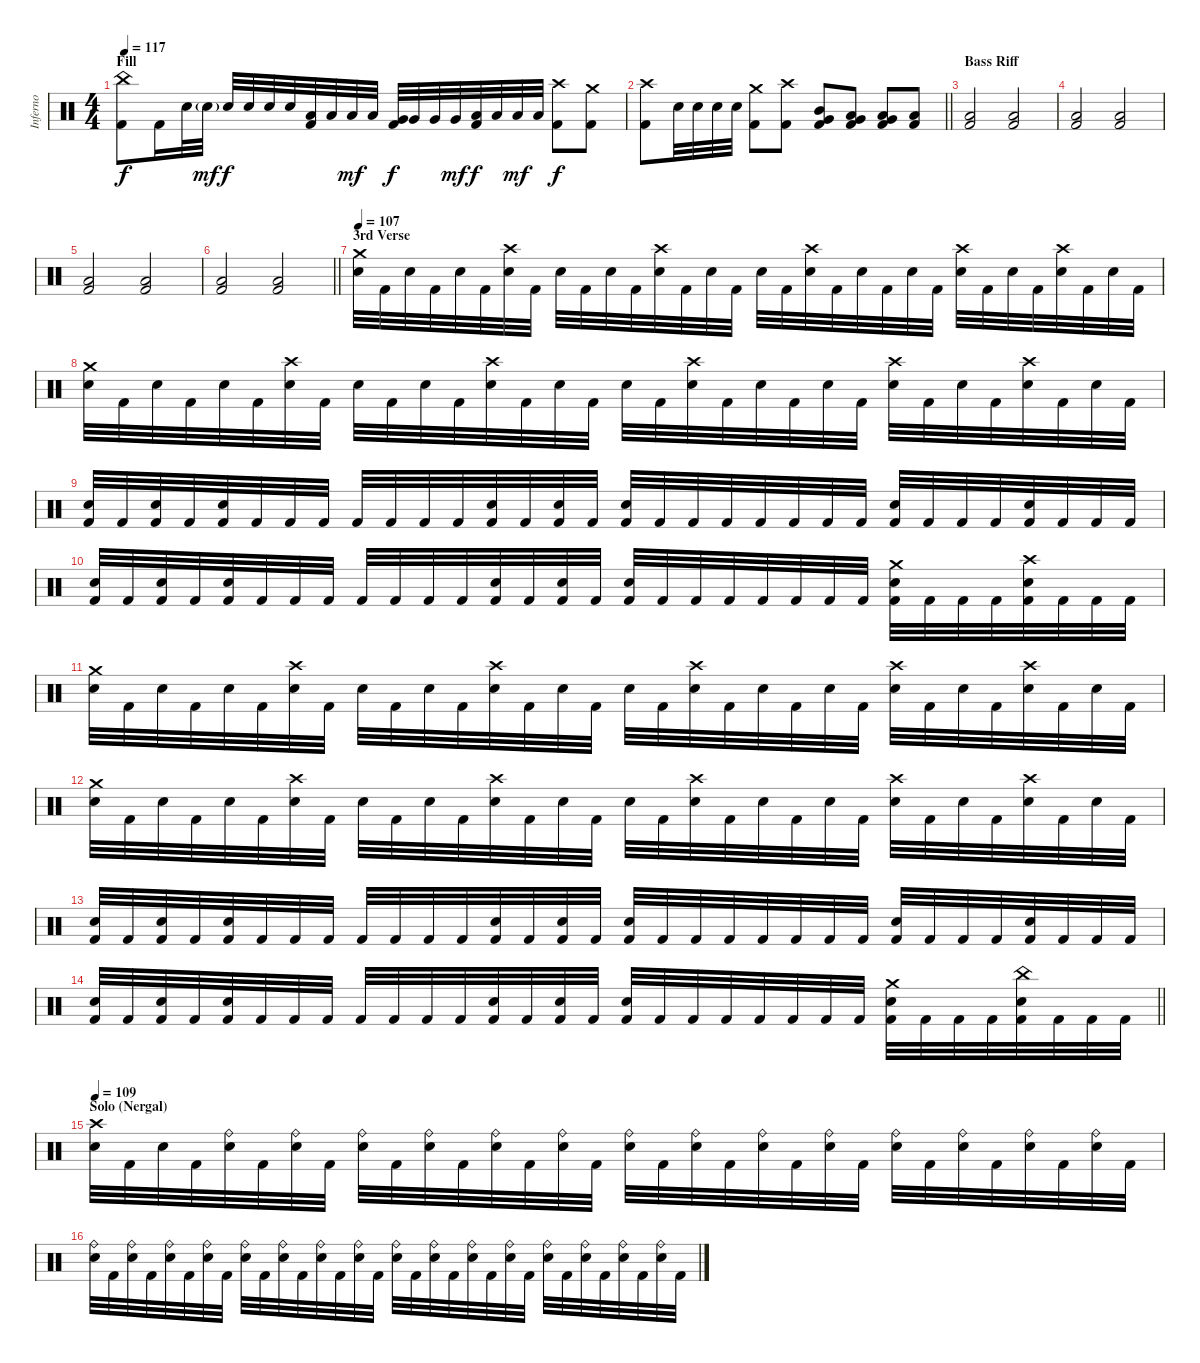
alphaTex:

\track ("Inferno" "Inferno") {instrument percussion}
\staff {score}
\articulation defaults
\ts (4 4)
\section ("" "Fill")
\tempo 117
\clef neutral
\ks c
("China (hit)" "Kick (hit) 2").8{dy f} "Kick (hit) 2".16 "Snare (hit) 2".32 "Snare (hit) 2"{g}.32{dy mf} "Snare (hit) 2".32{dy f} "Snare (hit) 2".32 "Snare (hit) 2".32 "Snare (hit) 2".32 ("Low Tom (hit)" "Kick (hit) 2").32 "Low Tom (hit)".32 "Low Tom (hit)".32{dy mf} "Low Tom (hit)".32 ("Very Low Tom (hit)" "Kick (hit) 2").32{dy f} "Very Low Tom (hit)".32 "Very Low Tom (hit)".32 "Very Low Tom (hit)".32{dy mf} ("Low Floor Tom (hit)" "Kick (hit) 2").32{dy f} "Low Floor Tom (hit)".32 "Low Floor Tom (hit)".32{dy mf} "Low Floor Tom (hit)".32 ("Crash high (hit)" "Kick (hit) 2").8{dy f} ("Crash medium (hit)" "Kick (hit) 2").8 |
\barLineRight lightlight
("Crash high (hit)" "Kick (hit) 2").8 "Snare (hit) 2".32 "Snare (hit) 2".32 "Snare (hit) 2".32 "Snare (hit) 2".32 ("Crash medium (hit)" "Kick (hit) 2").8 ("Crash high (hit)" "Kick (hit) 2").8 ("Mid Tom (hit)" "Very Low Tom (hit)" "Kick (hit) 2").8 ("Low Tom (hit)" "Very Low Tom (hit)" "Kick (hit) 2").8 ("Very Low Tom (hit)" "Low Floor Tom (hit)" "Kick (hit) 2").8 ("Low Floor Tom (hit)" "Kick (hit) 2").8 |
\section ("" "Bass Riff")
("Low Floor Tom (hit)" "Kick (hit) 2").2 ("Low Floor Tom (hit)" "Kick (hit) 2").2 |
("Low Floor Tom (hit)" "Kick (hit) 2").2 ("Low Floor Tom (hit)" "Kick (hit) 2").2 |
("Low Floor Tom (hit)" "Kick (hit) 2").2 ("Low Floor Tom (hit)" "Kick (hit) 2").2 |
\barLineRight lightlight
("Low Floor Tom (hit)" "Kick (hit) 2").2 ("Low Floor Tom (hit)" "Kick (hit) 2").2 |
\section ("" "3rd Verse")
\tempo 107
("Crash medium (hit)" "Snare (hit) 2").32 "Kick (hit) 2".32 "Snare (hit) 2".32 "Kick (hit) 2".32 "Snare (hit) 2".32 "Kick (hit) 2".32 ("Crash high (hit)" "Snare (hit) 2").32 "Kick (hit) 2".32 "Snare (hit) 2".32 "Kick (hit) 2".32 "Snare (hit) 2".32 "Kick (hit) 2".32 ("Crash high (hit)" "Snare (hit) 2").32 "Kick (hit) 2".32 "Snare (hit) 2".32 "Kick (hit) 2".32 "Snare (hit) 2".32 "Kick (hit) 2".32 ("Crash high (hit)" "Snare (hit) 2").32 "Kick (hit) 2".32 "Snare (hit) 2".32 "Kick (hit) 2".32 "Snare (hit) 2".32 "Kick (hit) 2".32 ("Crash high (hit)" "Snare (hit) 2").32 "Kick (hit) 2".32 "Snare (hit) 2".32 "Kick (hit) 2".32 ("Crash high (hit)" "Snare (hit) 2").32 "Kick (hit) 2".32 "Snare (hit) 2".32 "Kick (hit) 2".32 |
("Crash medium (hit)" "Snare (hit) 2").32 "Kick (hit) 2".32 "Snare (hit) 2".32 "Kick (hit) 2".32 "Snare (hit) 2".32 "Kick (hit) 2".32 ("Crash high (hit)" "Snare (hit) 2").32 "Kick (hit) 2".32 "Snare (hit) 2".32 "Kick (hit) 2".32 "Snare (hit) 2".32 "Kick (hit) 2".32 ("Crash high (hit)" "Snare (hit) 2").32 "Kick (hit) 2".32 "Snare (hit) 2".32 "Kick (hit) 2".32 "Snare (hit) 2".32 "Kick (hit) 2".32 ("Crash high (hit)" "Snare (hit) 2").32 "Kick (hit) 2".32 "Snare (hit) 2".32 "Kick (hit) 2".32 "Snare (hit) 2".32 "Kick (hit) 2".32 ("Crash high (hit)" "Snare (hit) 2").32 "Kick (hit) 2".32 "Snare (hit) 2".32 "Kick (hit) 2".32 ("Crash high (hit)" "Snare (hit) 2").32 "Kick (hit) 2".32 "Snare (hit) 2".32 "Kick (hit) 2".32 |
("Snare (hit) 2" "Kick (hit) 2").32 "Kick (hit) 2".32 ("Snare (hit) 2" "Kick (hit) 2").32 "Kick (hit) 2".32 ("Snare (hit) 2" "Kick (hit) 2").32 "Kick (hit) 2".32 "Kick (hit) 2".32 "Kick (hit) 2".32 "Kick (hit) 2".32 "Kick (hit) 2".32 "Kick (hit) 2".32 "Kick (hit) 2".32 ("Snare (hit) 2" "Kick (hit) 2").32 "Kick (hit) 2".32 ("Snare (hit) 2" "Kick (hit) 2").32 "Kick (hit) 2".32 ("Snare (hit) 2" "Kick (hit) 2").32 "Kick (hit) 2".32 "Kick (hit) 2".32 "Kick (hit) 2".32 "Kick (hit) 2".32 "Kick (hit) 2".32 "Kick (hit) 2".32 "Kick (hit) 2".32 ("Snare (hit) 2" "Kick (hit) 2").32 "Kick (hit) 2".32 "Kick (hit) 2".32 "Kick (hit) 2".32 ("Snare (hit) 2" "Kick (hit) 2").32 "Kick (hit) 2".32 "Kick (hit) 2".32 "Kick (hit) 2".32 |
("Snare (hit) 2" "Kick (hit) 2").32 "Kick (hit) 2".32 ("Snare (hit) 2" "Kick (hit) 2").32 "Kick (hit) 2".32 ("Snare (hit) 2" "Kick (hit) 2").32 "Kick (hit) 2".32 "Kick (hit) 2".32 "Kick (hit) 2".32 "Kick (hit) 2".32 "Kick (hit) 2".32 "Kick (hit) 2".32 "Kick (hit) 2".32 ("Snare (hit) 2" "Kick (hit) 2").32 "Kick (hit) 2".32 ("Snare (hit) 2" "Kick (hit) 2").32 "Kick (hit) 2".32 ("Snare (hit) 2" "Kick (hit) 2").32 "Kick (hit) 2".32 "Kick (hit) 2".32 "Kick (hit) 2".32 "Kick (hit) 2".32 "Kick (hit) 2".32 "Kick (hit) 2".32 "Kick (hit) 2".32 ("Crash medium (hit)" "Snare (hit) 2" "Kick (hit) 2").32 "Kick (hit) 2".32 "Kick (hit) 2".32 "Kick (hit) 2".32 ("Crash high (hit)" "Snare (hit) 2" "Kick (hit) 2").32 "Kick (hit) 2".32 "Kick (hit) 2".32 "Kick (hit) 2".32 |
("Crash medium (hit)" "Snare (hit) 2").32 "Kick (hit) 2".32 "Snare (hit) 2".32 "Kick (hit) 2".32 "Snare (hit) 2".32 "Kick (hit) 2".32 ("Crash high (hit)" "Snare (hit) 2").32 "Kick (hit) 2".32 "Snare (hit) 2".32 "Kick (hit) 2".32 "Snare (hit) 2".32 "Kick (hit) 2".32 ("Crash high (hit)" "Snare (hit) 2").32 "Kick (hit) 2".32 "Snare (hit) 2".32 "Kick (hit) 2".32 "Snare (hit) 2".32 "Kick (hit) 2".32 ("Crash high (hit)" "Snare (hit) 2").32 "Kick (hit) 2".32 "Snare (hit) 2".32 "Kick (hit) 2".32 "Snare (hit) 2".32 "Kick (hit) 2".32 ("Crash high (hit)" "Snare (hit) 2").32 "Kick (hit) 2".32 "Snare (hit) 2".32 "Kick (hit) 2".32 ("Crash high (hit)" "Snare (hit) 2").32 "Kick (hit) 2".32 "Snare (hit) 2".32 "Kick (hit) 2".32 |
("Crash medium (hit)" "Snare (hit) 2").32 "Kick (hit) 2".32 "Snare (hit) 2".32 "Kick (hit) 2".32 "Snare (hit) 2".32 "Kick (hit) 2".32 ("Crash high (hit)" "Snare (hit) 2").32 "Kick (hit) 2".32 "Snare (hit) 2".32 "Kick (hit) 2".32 "Snare (hit) 2".32 "Kick (hit) 2".32 ("Crash high (hit)" "Snare (hit) 2").32 "Kick (hit) 2".32 "Snare (hit) 2".32 "Kick (hit) 2".32 "Snare (hit) 2".32 "Kick (hit) 2".32 ("Crash high (hit)" "Snare (hit) 2").32 "Kick (hit) 2".32 "Snare (hit) 2".32 "Kick (hit) 2".32 "Snare (hit) 2".32 "Kick (hit) 2".32 ("Crash high (hit)" "Snare (hit) 2").32 "Kick (hit) 2".32 "Snare (hit) 2".32 "Kick (hit) 2".32 ("Crash high (hit)" "Snare (hit) 2").32 "Kick (hit) 2".32 "Snare (hit) 2".32 "Kick (hit) 2".32 |
("Snare (hit) 2" "Kick (hit) 2").32 "Kick (hit) 2".32 ("Snare (hit) 2" "Kick (hit) 2").32 "Kick (hit) 2".32 ("Snare (hit) 2" "Kick (hit) 2").32 "Kick (hit) 2".32 "Kick (hit) 2".32 "Kick (hit) 2".32 "Kick (hit) 2".32 "Kick (hit) 2".32 "Kick (hit) 2".32 "Kick (hit) 2".32 ("Snare (hit) 2" "Kick (hit) 2").32 "Kick (hit) 2".32 ("Snare (hit) 2" "Kick (hit) 2").32 "Kick (hit) 2".32 ("Snare (hit) 2" "Kick (hit) 2").32 "Kick (hit) 2".32 "Kick (hit) 2".32 "Kick (hit) 2".32 "Kick (hit) 2".32 "Kick (hit) 2".32 "Kick (hit) 2".32 "Kick (hit) 2".32 ("Snare (hit) 2" "Kick (hit) 2").32 "Kick (hit) 2".32 "Kick (hit) 2".32 "Kick (hit) 2".32 ("Snare (hit) 2" "Kick (hit) 2").32 "Kick (hit) 2".32 "Kick (hit) 2".32 "Kick (hit) 2".32 |
\barLineRight lightlight
("Snare (hit) 2" "Kick (hit) 2").32 "Kick (hit) 2".32 ("Snare (hit) 2" "Kick (hit) 2").32 "Kick (hit) 2".32 ("Snare (hit) 2" "Kick (hit) 2").32 "Kick (hit) 2".32 "Kick (hit) 2".32 "Kick (hit) 2".32 "Kick (hit) 2".32 "Kick (hit) 2".32 "Kick (hit) 2".32 "Kick (hit) 2".32 ("Snare (hit) 2" "Kick (hit) 2").32 "Kick (hit) 2".32 ("Snare (hit) 2" "Kick (hit) 2").32 "Kick (hit) 2".32 ("Snare (hit) 2" "Kick (hit) 2").32 "Kick (hit) 2".32 "Kick (hit) 2".32 "Kick (hit) 2".32 "Kick (hit) 2".32 "Kick (hit) 2".32 "Kick (hit) 2".32 "Kick (hit) 2".32 ("Crash medium (hit)" "Snare (hit) 2" "Kick (hit) 2").32 "Kick (hit) 2".32 "Kick (hit) 2".32 "Kick (hit) 2".32 ("China (hit)" "Snare (hit) 2" "Kick (hit) 2").32 "Kick (hit) 2".32 "Kick (hit) 2".32 "Kick (hit) 2".32 |
\section ("" "Solo (Nergal)")
\tempo 109
("Crash high (hit)" "Snare (hit) 2").32 "Kick (hit) 2".32 "Snare (hit) 2".32 "Kick (hit) 2".32 ("Ride (bell)" "Snare (hit) 2").32 "Kick (hit) 2".32 ("Ride (bell)" "Snare (hit) 2").32 "Kick (hit) 2".32 ("Ride (bell)" "Snare (hit) 2").32 "Kick (hit) 2".32 ("Ride (bell)" "Snare (hit) 2").32 "Kick (hit) 2".32 ("Ride (bell)" "Snare (hit) 2").32 "Kick (hit) 2".32 ("Ride (bell)" "Snare (hit) 2").32 "Kick (hit) 2".32 ("Ride (bell)" "Snare (hit) 2").32 "Kick (hit) 2".32 ("Ride (bell)" "Snare (hit) 2").32 "Kick (hit) 2".32 ("Ride (bell)" "Snare (hit) 2").32 "Kick (hit) 2".32 ("Ride (bell)" "Snare (hit) 2").32 "Kick (hit) 2".32 ("Ride (bell)" "Snare (hit) 2").32 "Kick (hit) 2".32 ("Ride (bell)" "Snare (hit) 2").32 "Kick (hit) 2".32 ("Ride (bell)" "Snare (hit) 2").32 "Kick (hit) 2".32 ("Ride (bell)" "Snare (hit) 2").32 "Kick (hit) 2".32 |
("Ride (bell)" "Snare (hit) 2").32 "Kick (hit) 2".32 ("Ride (bell)" "Snare (hit) 2").32 "Kick (hit) 2".32 ("Ride (bell)" "Snare (hit) 2").32 "Kick (hit) 2".32 ("Ride (bell)" "Snare (hit) 2").32 "Kick (hit) 2".32 ("Ride (bell)" "Snare (hit) 2").32 "Kick (hit) 2".32 ("Ride (bell)" "Snare (hit) 2").32 "Kick (hit) 2".32 ("Ride (bell)" "Snare (hit) 2").32 "Kick (hit) 2".32 ("Ride (bell)" "Snare (hit) 2").32 "Kick (hit) 2".32 ("Ride (bell)" "Snare (hit) 2").32 "Kick (hit) 2".32 ("Ride (bell)" "Snare (hit) 2").32 "Kick (hit) 2".32 ("Ride (bell)" "Snare (hit) 2").32 "Kick (hit) 2".32 ("Ride (bell)" "Snare (hit) 2").32 "Kick (hit) 2".32 ("Ride (bell)" "Snare (hit) 2").32 "Kick (hit) 2".32 ("Ride (bell)" "Snare (hit) 2").32 "Kick (hit) 2".32 ("Ride (bell)" "Snare (hit) 2").32 "Kick (hit) 2".32 ("Ride (bell)" "Snare (hit) 2").32 "Kick (hit) 2".32
